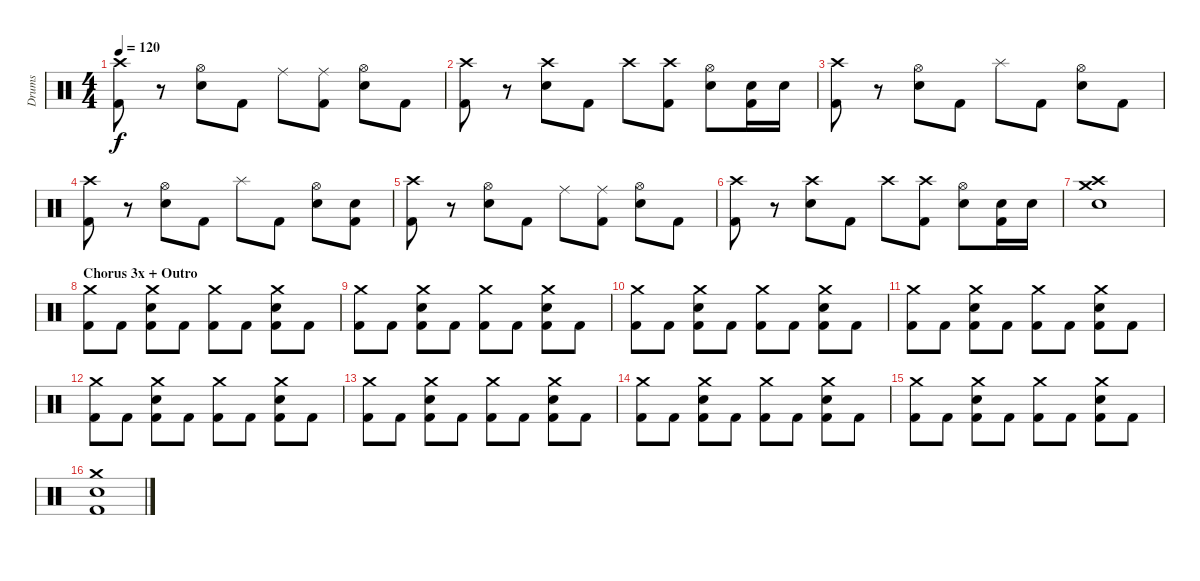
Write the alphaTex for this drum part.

\track ("Drums" "Drums") {instrument percussion}
\staff {score}
\articulation defaults
\ts (4 4)
\tempo 120
\clef neutral
\ks c
("Crash high (hit)" "Kick (hit) 2").8{dy f} r.8 ("Hi-Hat (open)" "Electric Snare (hit)").8 "Kick (hit) 2".8 "Ride (middle)".8 ("Ride (middle)" "Kick (hit) 2").8 ("Hi-Hat (open)" "Electric Snare (hit)").8 "Kick (hit) 2".8 |
("Crash high (hit)" "Kick (hit) 2").8 r.8 ("Crash high (hit)" "Electric Snare (hit)").8 "Kick (hit) 2".8 "Crash high (hit)".8 ("Crash high (hit)" "Kick (hit) 2").8 ("Hi-Hat (open)" "Electric Snare (hit)").8 ("Electric Snare (hit)" "Kick (hit) 2").16 "Electric Snare (hit)".16 |
("Crash high (hit)" "Kick (hit) 2").8 r.8 ("Hi-Hat (open)" "Electric Snare (hit)").8 "Kick (hit) 2".8 "Splash (hit)".8 "Kick (hit) 2".8 ("Hi-Hat (open)" "Electric Snare (hit)").8 "Kick (hit) 2".8 |
("Crash high (hit)" "Kick (hit) 2").8 r.8 ("Hi-Hat (open)" "Electric Snare (hit)").8 "Kick (hit) 2".8 "Splash (hit)".8 "Kick (hit) 2".8 ("Hi-Hat (open)" "Electric Snare (hit)").8 ("Electric Snare (hit)" "Kick (hit) 2").8 |
("Crash high (hit)" "Kick (hit) 2").8 r.8 ("Hi-Hat (open)" "Electric Snare (hit)").8 "Kick (hit) 2".8 "Ride (middle)".8 ("Ride (middle)" "Kick (hit) 2").8 ("Hi-Hat (open)" "Electric Snare (hit)").8 "Kick (hit) 2".8 |
("Crash high (hit)" "Kick (hit) 2").8 r.8 ("Crash high (hit)" "Electric Snare (hit)").8 "Kick (hit) 2".8 "Crash high (hit)".8 ("Crash high (hit)" "Kick (hit) 2").8 ("Hi-Hat (open)" "Electric Snare (hit)").8 ("Electric Snare (hit)" "Kick (hit) 2").16 "Electric Snare (hit)".16 |
("Crash medium (hit)" "Crash high (hit)" "Electric Snare (hit)").1 |
\section ("" "Chorus 3x + Outro")
("Crash medium (hit)" "Kick (hit) 2").8 "Kick (hit) 2".8 ("Crash medium (hit)" "Electric Snare (hit)" "Kick (hit) 2").8 "Kick (hit) 2".8 ("Crash medium (hit)" "Kick (hit) 2").8 "Kick (hit) 2".8 ("Crash medium (hit)" "Electric Snare (hit)" "Kick (hit) 2").8 "Kick (hit) 2".8 |
("Crash medium (hit)" "Kick (hit) 2").8 "Kick (hit) 2".8 ("Crash medium (hit)" "Electric Snare (hit)" "Kick (hit) 2").8 "Kick (hit) 2".8 ("Crash medium (hit)" "Kick (hit) 2").8 "Kick (hit) 2".8 ("Crash medium (hit)" "Electric Snare (hit)" "Kick (hit) 2").8 "Kick (hit) 2".8 |
("Crash medium (hit)" "Kick (hit) 2").8 "Kick (hit) 2".8 ("Crash medium (hit)" "Electric Snare (hit)" "Kick (hit) 2").8 "Kick (hit) 2".8 ("Crash medium (hit)" "Kick (hit) 2").8 "Kick (hit) 2".8 ("Crash medium (hit)" "Electric Snare (hit)" "Kick (hit) 2").8 "Kick (hit) 2".8 |
("Crash medium (hit)" "Kick (hit) 2").8 "Kick (hit) 2".8 ("Crash medium (hit)" "Electric Snare (hit)" "Kick (hit) 2").8 "Kick (hit) 2".8 ("Crash medium (hit)" "Kick (hit) 2").8 "Kick (hit) 2".8 ("Crash medium (hit)" "Electric Snare (hit)" "Kick (hit) 2").8 "Kick (hit) 2".8 |
("Crash medium (hit)" "Kick (hit) 2").8 "Kick (hit) 2".8 ("Crash medium (hit)" "Electric Snare (hit)" "Kick (hit) 2").8 "Kick (hit) 2".8 ("Crash medium (hit)" "Kick (hit) 2").8 "Kick (hit) 2".8 ("Crash medium (hit)" "Electric Snare (hit)" "Kick (hit) 2").8 "Kick (hit) 2".8 |
("Crash medium (hit)" "Kick (hit) 2").8 "Kick (hit) 2".8 ("Crash medium (hit)" "Electric Snare (hit)" "Kick (hit) 2").8 "Kick (hit) 2".8 ("Crash medium (hit)" "Kick (hit) 2").8 "Kick (hit) 2".8 ("Crash medium (hit)" "Electric Snare (hit)" "Kick (hit) 2").8 "Kick (hit) 2".8 |
("Crash medium (hit)" "Kick (hit) 2").8 "Kick (hit) 2".8 ("Crash medium (hit)" "Electric Snare (hit)" "Kick (hit) 2").8 "Kick (hit) 2".8 ("Crash medium (hit)" "Kick (hit) 2").8 "Kick (hit) 2".8 ("Crash medium (hit)" "Electric Snare (hit)" "Kick (hit) 2").8 "Kick (hit) 2".8 |
("Crash medium (hit)" "Kick (hit) 2").8 "Kick (hit) 2".8 ("Crash medium (hit)" "Electric Snare (hit)" "Kick (hit) 2").8 "Kick (hit) 2".8 ("Crash medium (hit)" "Kick (hit) 2").8 "Kick (hit) 2".8 ("Crash medium (hit)" "Electric Snare (hit)" "Kick (hit) 2").8 "Kick (hit) 2".8 |
("Crash medium (hit)" "Electric Snare (hit)" "Kick (hit) 2").1
